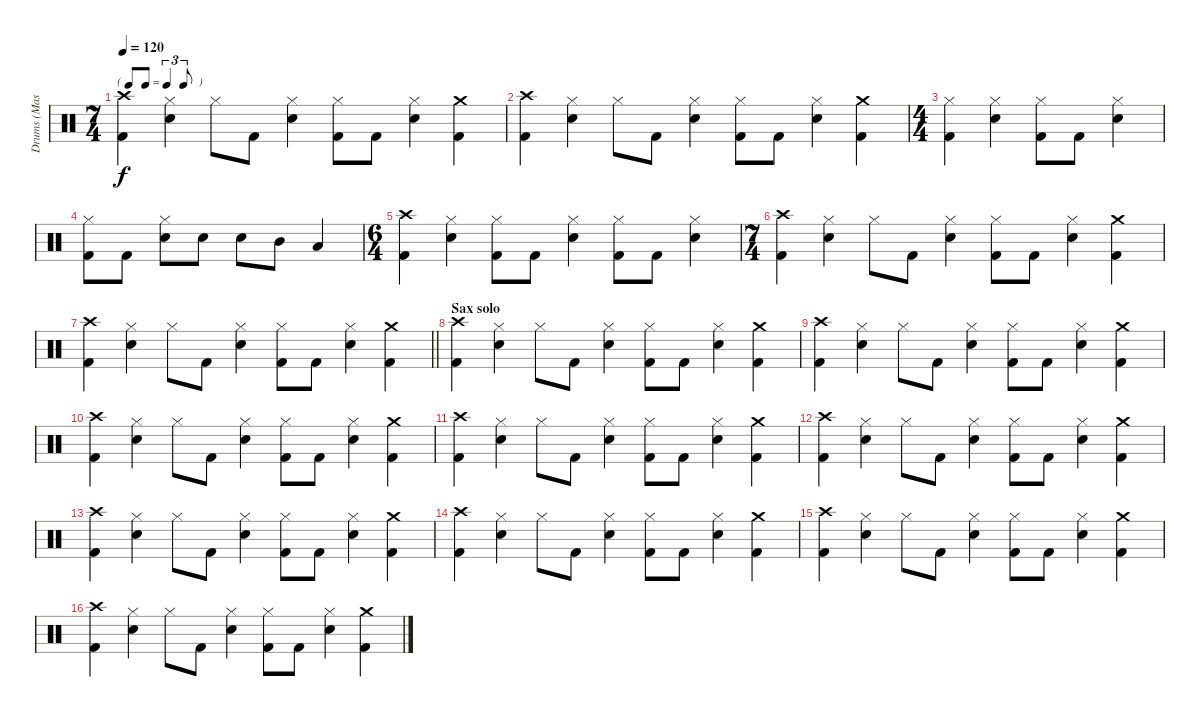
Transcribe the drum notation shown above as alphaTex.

\track ("Drums (Mason)" "Drums (Mas") {instrument percussion}
\staff {score}
\articulation defaults
\ts (7 4)
\tf triplet8th
\tempo 120
\clef neutral
\ks c
("Crash high (hit)" "Kick (hit) 2").4{dy f} ("Hi-Hat (closed)" "Electric Snare (hit)").4 "Hi-Hat (closed)".8 "Kick (hit) 2".8 ("Hi-Hat (closed)" "Electric Snare (hit)").4 ("Hi-Hat (closed)" "Kick (hit) 2").8 "Kick (hit) 2".8 ("Hi-Hat (closed)" "Electric Snare (hit)").4 ("Crash medium (hit)" "Kick (hit) 2").4 |
("Crash high (hit)" "Kick (hit) 2").4 ("Hi-Hat (closed)" "Electric Snare (hit)").4 "Hi-Hat (closed)".8 "Kick (hit) 2".8 ("Hi-Hat (closed)" "Electric Snare (hit)").4 ("Hi-Hat (closed)" "Kick (hit) 2").8 "Kick (hit) 2".8 ("Hi-Hat (closed)" "Electric Snare (hit)").4 ("Crash medium (hit)" "Kick (hit) 2").4 |
\ts (4 4)
("Hi-Hat (closed)" "Kick (hit) 2").4 ("Hi-Hat (closed)" "Electric Snare (hit)").4 ("Hi-Hat (closed)" "Kick (hit) 2").8 "Kick (hit) 2".8 ("Hi-Hat (closed)" "Electric Snare (hit)").4 |
("Hi-Hat (closed)" "Kick (hit) 2").8 "Kick (hit) 2".8 ("Hi-Hat (closed)" "Electric Snare (hit)").8 "Electric Snare (hit)".8 "Electric Snare (hit)".8 "Mid Tom (hit)".8 "Low Tom (hit)".4 |
\ts (6 4)
("Crash high (hit)" "Kick (hit) 2").4 ("Hi-Hat (closed)" "Electric Snare (hit)").4 ("Hi-Hat (closed)" "Kick (hit) 2").8 "Kick (hit) 2".8 ("Hi-Hat (closed)" "Electric Snare (hit)").4 ("Hi-Hat (closed)" "Kick (hit) 2").8 "Kick (hit) 2".8 ("Hi-Hat (closed)" "Electric Snare (hit)").4 |
\ts (7 4)
("Crash high (hit)" "Kick (hit) 2").4 ("Hi-Hat (closed)" "Electric Snare (hit)").4 "Hi-Hat (closed)".8 "Kick (hit) 2".8 ("Hi-Hat (closed)" "Electric Snare (hit)").4 ("Hi-Hat (closed)" "Kick (hit) 2").8 "Kick (hit) 2".8 ("Hi-Hat (closed)" "Electric Snare (hit)").4 ("Crash medium (hit)" "Kick (hit) 2").4 |
\barLineRight lightlight
("Crash high (hit)" "Kick (hit) 2").4 ("Hi-Hat (closed)" "Electric Snare (hit)").4 "Hi-Hat (closed)".8 "Kick (hit) 2".8 ("Hi-Hat (closed)" "Electric Snare (hit)").4 ("Hi-Hat (closed)" "Kick (hit) 2").8 "Kick (hit) 2".8 ("Hi-Hat (closed)" "Electric Snare (hit)").4 ("Crash medium (hit)" "Kick (hit) 2").4 |
\section ("" "Sax solo")
("Crash high (hit)" "Kick (hit) 2").4 ("Hi-Hat (closed)" "Electric Snare (hit)").4 "Hi-Hat (closed)".8 "Kick (hit) 2".8 ("Hi-Hat (closed)" "Electric Snare (hit)").4 ("Hi-Hat (closed)" "Kick (hit) 2").8 "Kick (hit) 2".8 ("Hi-Hat (closed)" "Electric Snare (hit)").4 ("Crash medium (hit)" "Kick (hit) 2").4 |
("Crash high (hit)" "Kick (hit) 2").4 ("Hi-Hat (closed)" "Electric Snare (hit)").4 "Hi-Hat (closed)".8 "Kick (hit) 2".8 ("Hi-Hat (closed)" "Electric Snare (hit)").4 ("Hi-Hat (closed)" "Kick (hit) 2").8 "Kick (hit) 2".8 ("Hi-Hat (closed)" "Electric Snare (hit)").4 ("Crash medium (hit)" "Kick (hit) 2").4 |
("Crash high (hit)" "Kick (hit) 2").4 ("Hi-Hat (closed)" "Electric Snare (hit)").4 "Hi-Hat (closed)".8 "Kick (hit) 2".8 ("Hi-Hat (closed)" "Electric Snare (hit)").4 ("Hi-Hat (closed)" "Kick (hit) 2").8 "Kick (hit) 2".8 ("Hi-Hat (closed)" "Electric Snare (hit)").4 ("Crash medium (hit)" "Kick (hit) 2").4 |
("Crash high (hit)" "Kick (hit) 2").4 ("Hi-Hat (closed)" "Electric Snare (hit)").4 "Hi-Hat (closed)".8 "Kick (hit) 2".8 ("Hi-Hat (closed)" "Electric Snare (hit)").4 ("Hi-Hat (closed)" "Kick (hit) 2").8 "Kick (hit) 2".8 ("Hi-Hat (closed)" "Electric Snare (hit)").4 ("Crash medium (hit)" "Kick (hit) 2").4 |
("Crash high (hit)" "Kick (hit) 2").4 ("Hi-Hat (closed)" "Electric Snare (hit)").4 "Hi-Hat (closed)".8 "Kick (hit) 2".8 ("Hi-Hat (closed)" "Electric Snare (hit)").4 ("Hi-Hat (closed)" "Kick (hit) 2").8 "Kick (hit) 2".8 ("Hi-Hat (closed)" "Electric Snare (hit)").4 ("Crash medium (hit)" "Kick (hit) 2").4 |
("Crash high (hit)" "Kick (hit) 2").4 ("Hi-Hat (closed)" "Electric Snare (hit)").4 "Hi-Hat (closed)".8 "Kick (hit) 2".8 ("Hi-Hat (closed)" "Electric Snare (hit)").4 ("Hi-Hat (closed)" "Kick (hit) 2").8 "Kick (hit) 2".8 ("Hi-Hat (closed)" "Electric Snare (hit)").4 ("Crash medium (hit)" "Kick (hit) 2").4 |
("Crash high (hit)" "Kick (hit) 2").4 ("Hi-Hat (closed)" "Electric Snare (hit)").4 "Hi-Hat (closed)".8 "Kick (hit) 2".8 ("Hi-Hat (closed)" "Electric Snare (hit)").4 ("Hi-Hat (closed)" "Kick (hit) 2").8 "Kick (hit) 2".8 ("Hi-Hat (closed)" "Electric Snare (hit)").4 ("Crash medium (hit)" "Kick (hit) 2").4 |
("Crash high (hit)" "Kick (hit) 2").4 ("Hi-Hat (closed)" "Electric Snare (hit)").4 "Hi-Hat (closed)".8 "Kick (hit) 2".8 ("Hi-Hat (closed)" "Electric Snare (hit)").4 ("Hi-Hat (closed)" "Kick (hit) 2").8 "Kick (hit) 2".8 ("Hi-Hat (closed)" "Electric Snare (hit)").4 ("Crash medium (hit)" "Kick (hit) 2").4 |
("Crash high (hit)" "Kick (hit) 2").4 ("Hi-Hat (closed)" "Electric Snare (hit)").4 "Hi-Hat (closed)".8 "Kick (hit) 2".8 ("Hi-Hat (closed)" "Electric Snare (hit)").4 ("Hi-Hat (closed)" "Kick (hit) 2").8 "Kick (hit) 2".8 ("Hi-Hat (closed)" "Electric Snare (hit)").4 ("Crash medium (hit)" "Kick (hit) 2").4
